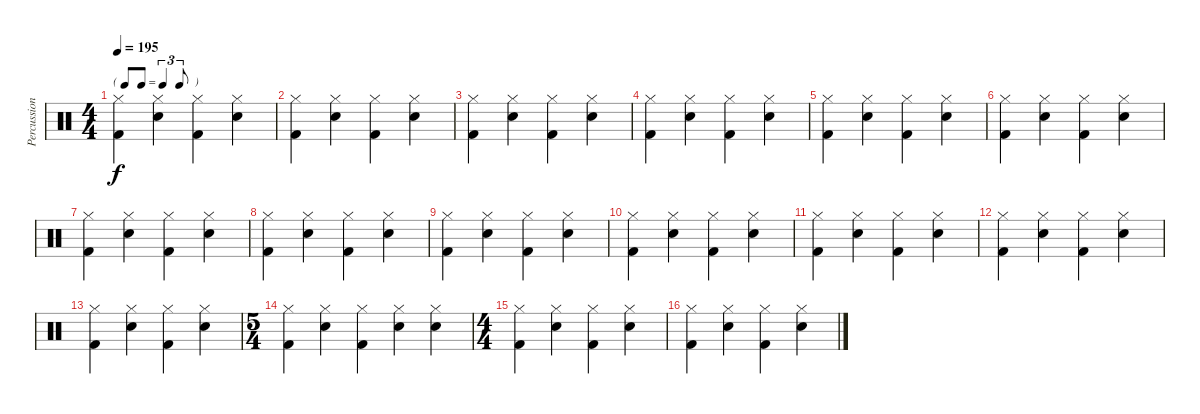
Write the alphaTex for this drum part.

\track ("Percussions" "Percussion") {instrument percussion}
\staff {score}
\articulation defaults
\ts (4 4)
\tf triplet8th
\tempo 195
\clef neutral
\ks c
("Hi-Hat (closed)" "Kick (hit) 2").4{dy f} ("Snare (hit) 2" "Hi-Hat (closed)").4 ("Hi-Hat (closed)" "Kick (hit) 2").4 ("Snare (hit) 2" "Hi-Hat (closed)").4 |
("Hi-Hat (closed)" "Kick (hit) 2").4 ("Snare (hit) 2" "Hi-Hat (closed)").4 ("Hi-Hat (closed)" "Kick (hit) 2").4 ("Snare (hit) 2" "Hi-Hat (closed)").4 |
("Hi-Hat (closed)" "Kick (hit) 2").4 ("Snare (hit) 2" "Hi-Hat (closed)").4 ("Hi-Hat (closed)" "Kick (hit) 2").4 ("Snare (hit) 2" "Hi-Hat (closed)").4 |
("Hi-Hat (closed)" "Kick (hit) 2").4 ("Snare (hit) 2" "Hi-Hat (closed)").4 ("Hi-Hat (closed)" "Kick (hit) 2").4 ("Snare (hit) 2" "Hi-Hat (closed)").4 |
("Hi-Hat (closed)" "Kick (hit) 2").4 ("Snare (hit) 2" "Hi-Hat (closed)").4 ("Hi-Hat (closed)" "Kick (hit) 2").4 ("Snare (hit) 2" "Hi-Hat (closed)").4 |
("Hi-Hat (closed)" "Kick (hit) 2").4 ("Snare (hit) 2" "Hi-Hat (closed)").4 ("Hi-Hat (closed)" "Kick (hit) 2").4 ("Snare (hit) 2" "Hi-Hat (closed)").4 |
("Hi-Hat (closed)" "Kick (hit) 2").4 ("Snare (hit) 2" "Hi-Hat (closed)").4 ("Hi-Hat (closed)" "Kick (hit) 2").4 ("Snare (hit) 2" "Hi-Hat (closed)").4 |
("Hi-Hat (closed)" "Kick (hit) 2").4 ("Snare (hit) 2" "Hi-Hat (closed)").4 ("Hi-Hat (closed)" "Kick (hit) 2").4 ("Snare (hit) 2" "Hi-Hat (closed)").4 |
("Hi-Hat (closed)" "Kick (hit) 2").4 ("Snare (hit) 2" "Hi-Hat (closed)").4 ("Hi-Hat (closed)" "Kick (hit) 2").4 ("Snare (hit) 2" "Hi-Hat (closed)").4 |
("Hi-Hat (closed)" "Kick (hit) 2").4 ("Snare (hit) 2" "Hi-Hat (closed)").4 ("Hi-Hat (closed)" "Kick (hit) 2").4 ("Snare (hit) 2" "Hi-Hat (closed)").4 |
("Hi-Hat (closed)" "Kick (hit) 2").4 ("Snare (hit) 2" "Hi-Hat (closed)").4 ("Hi-Hat (closed)" "Kick (hit) 2").4 ("Snare (hit) 2" "Hi-Hat (closed)").4 |
("Hi-Hat (closed)" "Kick (hit) 2").4 ("Snare (hit) 2" "Hi-Hat (closed)").4 ("Hi-Hat (closed)" "Kick (hit) 2").4 ("Snare (hit) 2" "Hi-Hat (closed)").4 |
("Hi-Hat (closed)" "Kick (hit) 2").4 ("Snare (hit) 2" "Hi-Hat (closed)").4 ("Hi-Hat (closed)" "Kick (hit) 2").4 ("Snare (hit) 2" "Hi-Hat (closed)").4 |
\ts (5 4)
("Hi-Hat (closed)" "Kick (hit) 2").4 ("Snare (hit) 2" "Hi-Hat (closed)").4 ("Hi-Hat (closed)" "Kick (hit) 2").4 ("Snare (hit) 2" "Hi-Hat (closed)").4 ("Snare (hit) 2" "Hi-Hat (closed)").4 |
\ts (4 4)
("Hi-Hat (closed)" "Kick (hit) 2").4 ("Snare (hit) 2" "Hi-Hat (closed)").4 ("Hi-Hat (closed)" "Kick (hit) 2").4 ("Snare (hit) 2" "Hi-Hat (closed)").4 |
("Hi-Hat (closed)" "Kick (hit) 2").4 ("Snare (hit) 2" "Hi-Hat (closed)").4 ("Hi-Hat (closed)" "Kick (hit) 2").4 ("Snare (hit) 2" "Hi-Hat (closed)").4
